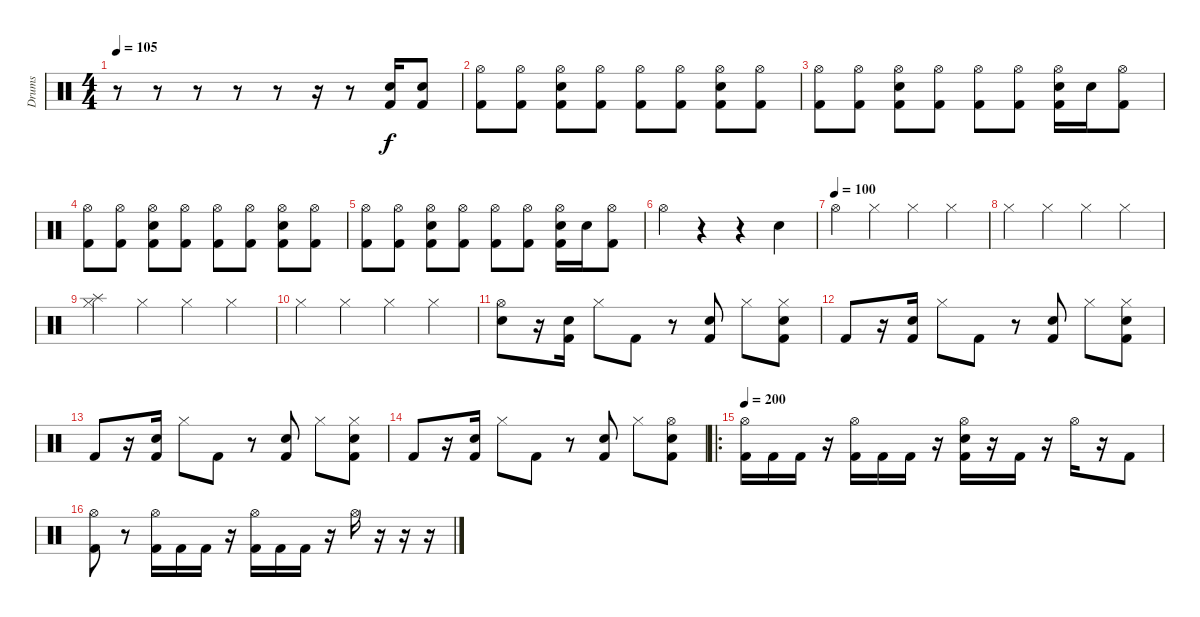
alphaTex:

\track ("Drums" "Drums") {instrument percussion}
\staff {score}
\articulation defaults
\ts (4 4)
\tempo 105
\clef neutral
\ks c
r.8{dy f} r.8 r.8 r.8 r.8 r.16 r.8 ("Electric Snare (hit)" "Kick (hit) 2").16 ("Electric Snare (hit)" "Kick (hit) 2").8 |
("Hi-Hat (open)" "Kick (hit) 2").8 ("Hi-Hat (open)" "Kick (hit) 2").8 ("Hi-Hat (open)" "Electric Snare (hit)" "Kick (hit) 2").8 ("Hi-Hat (open)" "Kick (hit) 2").8 ("Hi-Hat (open)" "Kick (hit) 2").8 ("Hi-Hat (open)" "Kick (hit) 2").8 ("Hi-Hat (open)" "Electric Snare (hit)" "Kick (hit) 2").8 ("Hi-Hat (open)" "Kick (hit) 2").8 |
("Hi-Hat (open)" "Kick (hit) 2").8 ("Hi-Hat (open)" "Kick (hit) 2").8 ("Hi-Hat (open)" "Electric Snare (hit)" "Kick (hit) 2").8 ("Hi-Hat (open)" "Kick (hit) 2").8 ("Hi-Hat (open)" "Kick (hit) 2").8 ("Hi-Hat (open)" "Kick (hit) 2").8 ("Hi-Hat (open)" "Electric Snare (hit)" "Kick (hit) 2").16 "Electric Snare (hit)".16 ("Hi-Hat (open)" "Kick (hit) 2").8 |
("Hi-Hat (open)" "Kick (hit) 2").8 ("Hi-Hat (open)" "Kick (hit) 2").8 ("Hi-Hat (open)" "Electric Snare (hit)" "Kick (hit) 2").8 ("Hi-Hat (open)" "Kick (hit) 2").8 ("Hi-Hat (open)" "Kick (hit) 2").8 ("Hi-Hat (open)" "Kick (hit) 2").8 ("Hi-Hat (open)" "Electric Snare (hit)" "Kick (hit) 2").8 ("Hi-Hat (open)" "Kick (hit) 2").8 |
("Hi-Hat (open)" "Kick (hit) 2").8 ("Hi-Hat (open)" "Kick (hit) 2").8 ("Hi-Hat (open)" "Electric Snare (hit)" "Kick (hit) 2").8 ("Hi-Hat (open)" "Kick (hit) 2").8 ("Hi-Hat (open)" "Kick (hit) 2").8 ("Hi-Hat (open)" "Kick (hit) 2").8 ("Hi-Hat (open)" "Electric Snare (hit)" "Kick (hit) 2").16 "Electric Snare (hit)".16 ("Hi-Hat (open)" "Kick (hit) 2").8 |
"Hi-Hat (open)".4 r.4 r.4 "Electric Snare (hit)".4 |
\tempo (100)
"Hi-Hat (open)".4 "Hi-Hat (closed)".4 "Hi-Hat (closed)".4 "Hi-Hat (closed)".4 |
"Hi-Hat (closed)".4 "Hi-Hat (closed)".4 "Hi-Hat (closed)".4 "Hi-Hat (closed)".4 |
("Splash (hit)" "Hi-Hat (closed)").4 "Hi-Hat (closed)".4 "Hi-Hat (closed)".4 "Hi-Hat (closed)".4 |
"Hi-Hat (closed)".4 "Hi-Hat (closed)".4 "Hi-Hat (closed)".4 "Hi-Hat (closed)".4 |
("Hi-Hat (open)" "Electric Snare (hit)").8 r.16 ("Electric Snare (hit)" "Kick (hit) 2").16 "Hi-Hat (closed)".8 "Kick (hit) 2".8 r.8 ("Electric Snare (hit)" "Kick (hit) 2").8 "Hi-Hat (closed)".8 ("Hi-Hat (closed)" "Electric Snare (hit)" "Kick (hit) 2").8 |
"Kick (hit) 2".8 r.16 ("Electric Snare (hit)" "Kick (hit) 2").16 "Hi-Hat (closed)".8 "Kick (hit) 2".8 r.8 ("Electric Snare (hit)" "Kick (hit) 2").8 "Hi-Hat (closed)".8 ("Hi-Hat (closed)" "Electric Snare (hit)" "Kick (hit) 2").8 |
"Kick (hit) 2".8 r.16 ("Electric Snare (hit)" "Kick (hit) 2").16 "Hi-Hat (closed)".8 "Kick (hit) 2".8 r.8 ("Electric Snare (hit)" "Kick (hit) 2").8 "Hi-Hat (closed)".8 ("Hi-Hat (closed)" "Electric Snare (hit)" "Kick (hit) 2").8 |
"Kick (hit) 2".8 r.16 ("Electric Snare (hit)" "Kick (hit) 2").16 "Hi-Hat (closed)".8 "Kick (hit) 2".8 r.8 ("Electric Snare (hit)" "Kick (hit) 2").8 "Hi-Hat (closed)".8 ("Hi-Hat (open)" "Electric Snare (hit)" "Kick (hit) 2").8 |
\ro
\tempo 200
("Hi-Hat (open)" "Kick (hit) 2").16 "Kick (hit) 2".16 "Kick (hit) 2".16 r.16 ("Hi-Hat (open)" "Kick (hit) 2").16 "Kick (hit) 2".16 "Kick (hit) 2".16 r.16 ("Hi-Hat (open)" "Electric Snare (hit)" "Kick (hit) 2").16 r.16 "Kick (hit) 2".16 r.16 "Hi-Hat (open)".16 r.16 "Kick (hit) 2".8 |
("Hi-Hat (open)" "Kick (hit) 2").8 r.8 ("Hi-Hat (open)" "Kick (hit) 2").16 "Kick (hit) 2".16 "Kick (hit) 2".16 r.16 ("Hi-Hat (open)" "Kick (hit) 2").16 "Kick (hit) 2".16 "Kick (hit) 2".16 r.16 "Hi-Hat (open)".16 r.16 r.16 r.16
